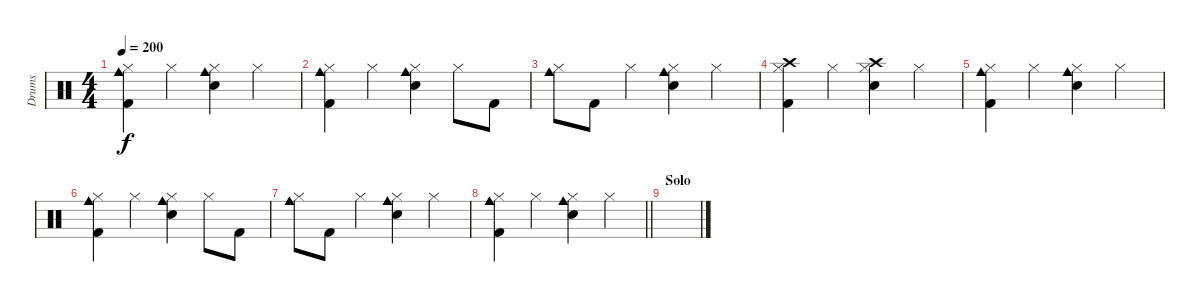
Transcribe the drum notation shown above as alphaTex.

\track ("Drums" "Drums") {instrument percussion}
\staff {score}
\articulation defaults
\ts (4 4)
\tempo 200
\clef neutral
\ks c
("Hi-Hat (closed)" "Cowbell medium (hit)" "Kick (hit) 2").4{dy f} "Hi-Hat (closed)".4 ("Hi-Hat (closed)" "Cowbell medium (hit)" "Snare (hit) 2").4 "Hi-Hat (closed)".4 |
("Hi-Hat (closed)" "Cowbell medium (hit)" "Kick (hit) 2").4 "Hi-Hat (closed)".4 ("Hi-Hat (closed)" "Cowbell medium (hit)" "Snare (hit) 2").4 "Hi-Hat (closed)".8 "Kick (hit) 2".8 |
("Hi-Hat (closed)" "Cowbell medium (hit)").8 "Kick (hit) 2".8 "Hi-Hat (closed)".4 ("Hi-Hat (closed)" "Cowbell medium (hit)" "Snare (hit) 2").4 "Hi-Hat (closed)".4 |
("Hi-Hat (closed)" "Crash high (hit)" "Kick (hit) 2").4 "Hi-Hat (closed)".4 ("Hi-Hat (closed)" "Crash high (hit)" "Snare (hit) 2").4 "Hi-Hat (closed)".4 |
("Hi-Hat (closed)" "Cowbell medium (hit)" "Kick (hit) 2").4 "Hi-Hat (closed)".4 ("Hi-Hat (closed)" "Cowbell medium (hit)" "Snare (hit) 2").4 "Hi-Hat (closed)".4 |
("Hi-Hat (closed)" "Cowbell medium (hit)" "Kick (hit) 2").4 "Hi-Hat (closed)".4 ("Hi-Hat (closed)" "Cowbell medium (hit)" "Snare (hit) 2").4 "Hi-Hat (closed)".8 "Kick (hit) 2".8 |
("Hi-Hat (closed)" "Cowbell medium (hit)").8 "Kick (hit) 2".8 "Hi-Hat (closed)".4 ("Hi-Hat (closed)" "Cowbell medium (hit)" "Snare (hit) 2").4 "Hi-Hat (closed)".4 |
\barLineRight lightlight
("Hi-Hat (closed)" "Cowbell medium (hit)" "Kick (hit) 2").4 "Hi-Hat (closed)".4 ("Hi-Hat (closed)" "Cowbell medium (hit)" "Snare (hit) 2").4 "Hi-Hat (closed)".4 |
\section ("" "Solo")
